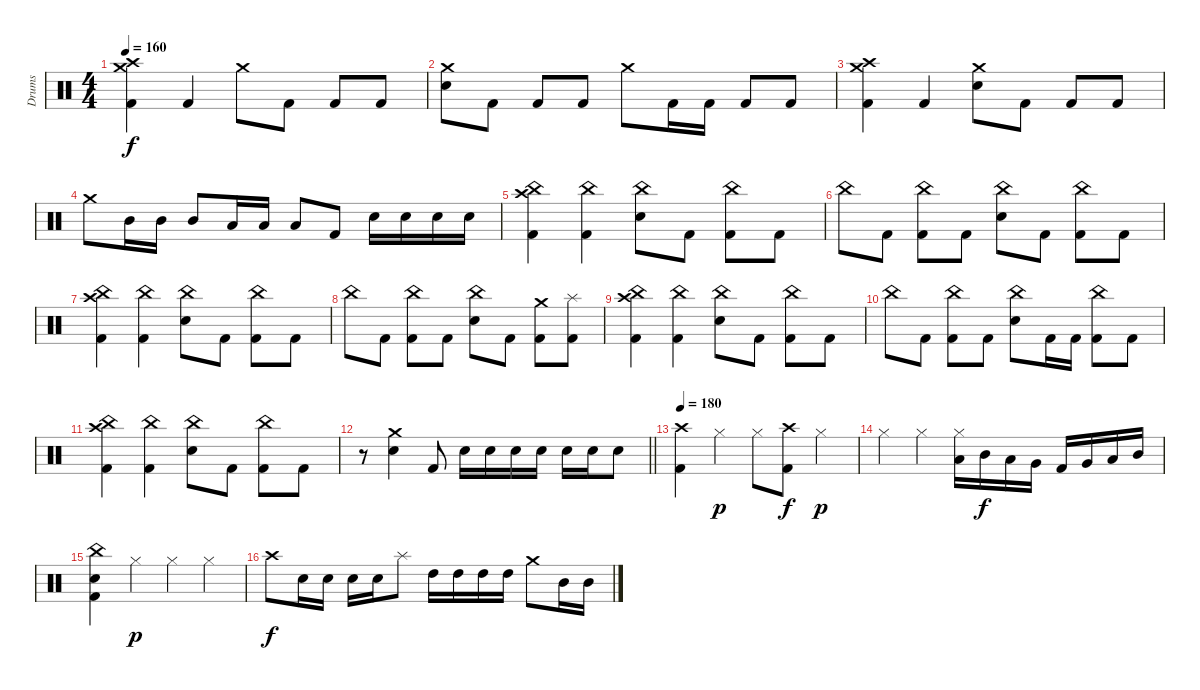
\track ("Drums" "Drums") {instrument percussion}
\staff {score}
\articulation defaults
\ts (4 4)
\tempo 160
\clef neutral
\ks c
("Crash high (hit)" "Crash medium (hit)" "Kick (hit) 2").4{dy f} "Kick (hit) 2".4 "Crash medium (hit)".8 "Kick (hit) 2".8 "Kick (hit) 2".8 "Kick (hit) 2".8 |
("Crash medium (hit)" "Electric Snare (hit)").8 "Kick (hit) 2".8 "Kick (hit) 2".8 "Kick (hit) 2".8 "Crash medium (hit)".8 "Kick (hit) 2".16 "Kick (hit) 2".16 "Kick (hit) 2".8 "Kick (hit) 2".8 |
("Crash high (hit)" "Crash medium (hit)" "Kick (hit) 2").4 "Kick (hit) 2".4 ("Crash medium (hit)" "Electric Snare (hit)").8 "Kick (hit) 2".8 "Kick (hit) 2".8 "Kick (hit) 2".8 |
"Crash medium (hit)".8 "Mid Tom (hit)".16 "Mid Tom (hit)".16 "Mid Tom (hit)".8 "Low Floor Tom (hit)".16 "Low Floor Tom (hit)".16 "Low Floor Tom (hit)".8 "Kick (hit) 2".8 "Electric Snare (hit)".16 "Electric Snare (hit)".16 "Electric Snare (hit)".16 "Electric Snare (hit)".16 |
("Crash high (hit)" "China (hit)" "Kick (hit) 2").4 ("China (hit)" "Kick (hit) 2").4 ("China (hit)" "Electric Snare (hit)").8 "Kick (hit) 2".8 ("China (hit)" "Kick (hit) 2").8 "Kick (hit) 2".8 |
"China (hit)".8 "Kick (hit) 2".8 ("China (hit)" "Kick (hit) 2").8 "Kick (hit) 2".8 ("China (hit)" "Electric Snare (hit)").8 "Kick (hit) 2".8 ("China (hit)" "Kick (hit) 2").8 "Kick (hit) 2".8 |
("Crash high (hit)" "China (hit)" "Kick (hit) 2").4 ("China (hit)" "Kick (hit) 2").4 ("China (hit)" "Electric Snare (hit)").8 "Kick (hit) 2".8 ("China (hit)" "Kick (hit) 2").8 "Kick (hit) 2".8 |
"China (hit)".8 "Kick (hit) 2".8 ("China (hit)" "Kick (hit) 2").8 "Kick (hit) 2".8 ("China (hit)" "Electric Snare (hit)").8 "Kick (hit) 2".8 ("Crash medium (hit)" "Kick (hit) 2").8 ("Splash (hit)" "Kick (hit) 2").8 |
("Crash high (hit)" "China (hit)" "Kick (hit) 2").4 ("China (hit)" "Kick (hit) 2").4 ("China (hit)" "Electric Snare (hit)").8 "Kick (hit) 2".8 ("China (hit)" "Kick (hit) 2").8 "Kick (hit) 2".8 |
"China (hit)".8 "Kick (hit) 2".8 ("China (hit)" "Kick (hit) 2").8 "Kick (hit) 2".8 ("China (hit)" "Electric Snare (hit)").8 "Kick (hit) 2".16 "Kick (hit) 2".16 ("China (hit)" "Kick (hit) 2").8 "Kick (hit) 2".8 |
("Crash high (hit)" "China (hit)" "Kick (hit) 2").4 ("China (hit)" "Kick (hit) 2").4 ("China (hit)" "Electric Snare (hit)").8 "Kick (hit) 2".8 ("China (hit)" "Kick (hit) 2").8 "Kick (hit) 2".8 |
\barLineRight lightlight
r.8 ("Crash medium (hit)" "Electric Snare (hit)").4 "Kick (hit) 2".8 "Electric Snare (hit)".16 "Electric Snare (hit)".16 "Electric Snare (hit)".16 "Electric Snare (hit)".16 "Electric Snare (hit)".16 "Electric Snare (hit)".16 "Electric Snare (hit)".8 |
\tempo 180
("Crash high (hit)" "Kick (hit) 2").4 "Hi-Hat (closed)".4{dy p} "Hi-Hat (closed)".8 ("Crash high (hit)" "Kick (hit) 2").8{dy f} "Hi-Hat (closed)".4{dy p} |
"Hi-Hat (closed)".4 "Hi-Hat (closed)".4 ("Low Tom (hit)" "Hi-Hat (closed)").16 "Mid Tom (hit)".16{dy f} "Low Tom (hit)".16 "Very Low Tom (hit)".16 "Kick (hit) 2".16 "Very Low Tom (hit)".16 "Low Tom (hit)".16 "Mid Tom (hit)".16 |
("China (hit)" "Electric Snare (hit)" "Kick (hit) 2").4 "Hi-Hat (closed)".4{dy p} "Hi-Hat (closed)".4 "Hi-Hat (closed)".4 |
"Crash high (hit)".8{dy f} "Electric Snare (hit)".16 "Electric Snare (hit)".16 "Electric Snare (hit)".16 "Electric Snare (hit)".16 "Splash (hit)".8 "High Tom (hit)".16 "High Tom (hit)".16 "High Tom (hit)".16 "High Tom (hit)".16 "Crash medium (hit)".8 "Mid Tom (hit)".16 "Mid Tom (hit)".16
